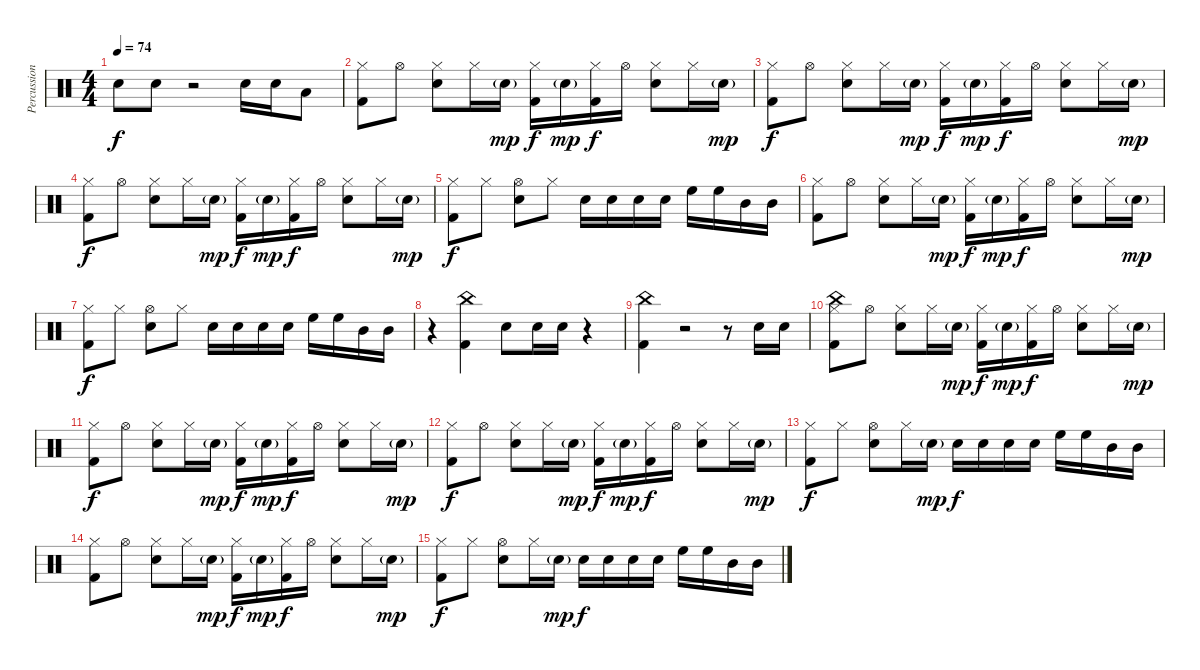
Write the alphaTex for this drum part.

\track ("Percussion" "Percussion") {instrument percussion}
\staff {score}
\articulation defaults
\ts (4 4)
\tempo 74
\clef neutral
\ks c "Snare (hit) 2".8{dy f} "Snare (hit) 2".8
r.2 "Snare (hit) 2".16 "Snare (hit) 2".16 "Low Tom (hit)".8 |
("Kick (hit) 2" "Hi-Hat (closed)").8 "Hi-Hat (open)".8 ("Hi-Hat (closed)" "Snare (hit) 2").8 "Hi-Hat (closed)".16 "Snare (hit) 2"{g}.16{dy mp} ("Kick (hit) 2" "Hi-Hat (closed)").16{dy f} "Snare (hit) 2"{g}.16{dy mp} ("Kick (hit) 2" "Hi-Hat (closed)").16{dy f} "Hi-Hat (open)".16 ("Hi-Hat (closed)" "Snare (hit) 2").8 "Hi-Hat (closed)".16 "Snare (hit) 2"{g}.16{dy mp} |
("Kick (hit) 2" "Hi-Hat (closed)").8{dy f} "Hi-Hat (open)".8 ("Hi-Hat (closed)" "Snare (hit) 2").8 "Hi-Hat (closed)".16 "Snare (hit) 2"{g}.16{dy mp} ("Kick (hit) 2" "Hi-Hat (closed)").16{dy f} "Snare (hit) 2"{g}.16{dy mp} ("Kick (hit) 2" "Hi-Hat (closed)").16{dy f} "Hi-Hat (open)".16 ("Hi-Hat (closed)" "Snare (hit) 2").8 "Hi-Hat (closed)".16 "Snare (hit) 2"{g}.16{dy mp} |
("Kick (hit) 2" "Hi-Hat (closed)").8{dy f} "Hi-Hat (open)".8 ("Hi-Hat (closed)" "Snare (hit) 2").8 "Hi-Hat (closed)".16 "Snare (hit) 2"{g}.16{dy mp} ("Kick (hit) 2" "Hi-Hat (closed)").16{dy f} "Snare (hit) 2"{g}.16{dy mp} ("Kick (hit) 2" "Hi-Hat (closed)").16{dy f} "Hi-Hat (open)".16 ("Hi-Hat (closed)" "Snare (hit) 2").8 "Hi-Hat (closed)".16 "Snare (hit) 2"{g}.16{dy mp} |
("Kick (hit) 2" "Hi-Hat (closed)").8{dy f} "Hi-Hat (closed)".8 ("Hi-Hat (open)" "Snare (hit) 2").8 "Hi-Hat (closed)".8 "Snare (hit) 2".16 "Snare (hit) 2".16 "Snare (hit) 2".16 "Snare (hit) 2".16 "High Floor Tom (hit)".16 "High Floor Tom (hit)".16 "Mid Tom (hit)".16 "Mid Tom (hit)".16 |
("Kick (hit) 2" "Hi-Hat (closed)").8 "Hi-Hat (open)".8 ("Hi-Hat (closed)" "Snare (hit) 2").8 "Hi-Hat (closed)".16 "Snare (hit) 2"{g}.16{dy mp} ("Kick (hit) 2" "Hi-Hat (closed)").16{dy f} "Snare (hit) 2"{g}.16{dy mp} ("Kick (hit) 2" "Hi-Hat (closed)").16{dy f} "Hi-Hat (open)".16 ("Hi-Hat (closed)" "Snare (hit) 2").8 "Hi-Hat (closed)".16 "Snare (hit) 2"{g}.16{dy mp} |
("Kick (hit) 2" "Hi-Hat (closed)").8{dy f} "Hi-Hat (closed)".8 ("Hi-Hat (open)" "Snare (hit) 2").8 "Hi-Hat (closed)".8 "Snare (hit) 2".16 "Snare (hit) 2".16 "Snare (hit) 2".16 "Snare (hit) 2".16 "High Floor Tom (hit)".16 "High Floor Tom (hit)".16 "Mid Tom (hit)".16 "Mid Tom (hit)".16 |
r.4 ("China (hit)" "Kick (hit) 2").4 "Snare (hit) 2".8 "Snare (hit) 2".16 "Snare (hit) 2".16 r.4 |
("China (hit)" "Kick (hit) 2").4 r.2 r.8 "Snare (hit) 2".16 "Snare (hit) 2".16 |
("China (hit)" "Hi-Hat (closed)" "Kick (hit) 2").8 "Hi-Hat (open)".8 ("Hi-Hat (closed)" "Snare (hit) 2").8 "Hi-Hat (closed)".16 "Snare (hit) 2"{g}.16{dy mp} ("Kick (hit) 2" "Hi-Hat (closed)").16{dy f} "Snare (hit) 2"{g}.16{dy mp} ("Kick (hit) 2" "Hi-Hat (closed)").16{dy f} "Hi-Hat (open)".16 ("Hi-Hat (closed)" "Snare (hit) 2").8 "Hi-Hat (closed)".16 "Snare (hit) 2"{g}.16{dy mp} |
("Hi-Hat (closed)" "Kick (hit) 2").8{dy f} "Hi-Hat (open)".8 ("Hi-Hat (closed)" "Snare (hit) 2").8 "Hi-Hat (closed)".16 "Snare (hit) 2"{g}.16{dy mp} ("Kick (hit) 2" "Hi-Hat (closed)").16{dy f} "Snare (hit) 2"{g}.16{dy mp} ("Kick (hit) 2" "Hi-Hat (closed)").16{dy f} "Hi-Hat (open)".16 ("Hi-Hat (closed)" "Snare (hit) 2").8 "Hi-Hat (closed)".16 "Snare (hit) 2"{g}.16{dy mp} |
("Hi-Hat (closed)" "Kick (hit) 2").8{dy f} "Hi-Hat (open)".8 ("Hi-Hat (closed)" "Snare (hit) 2").8 "Hi-Hat (closed)".16 "Snare (hit) 2"{g}.16{dy mp} ("Kick (hit) 2" "Hi-Hat (closed)").16{dy f} "Snare (hit) 2"{g}.16{dy mp} ("Kick (hit) 2" "Hi-Hat (closed)").16{dy f} "Hi-Hat (open)".16 ("Hi-Hat (closed)" "Snare (hit) 2").8 "Hi-Hat (closed)".16 "Snare (hit) 2"{g}.16{dy mp} |
("Hi-Hat (closed)" "Kick (hit) 2").8{dy f} "Hi-Hat (closed)".8 ("Hi-Hat (open)" "Snare (hit) 2").8 "Hi-Hat (closed)".16 "Snare (hit) 2"{g}.16{dy mp} "Snare (hit) 2".16{dy f} "Snare (hit) 2".16 "Snare (hit) 2".16 "Snare (hit) 2".16 "High Floor Tom (hit)".16 "High Floor Tom (hit)".16 "Mid Tom (hit)".16 "Mid Tom (hit)".16 |
("Hi-Hat (closed)" "Kick (hit) 2").8 "Hi-Hat (open)".8 ("Hi-Hat (closed)" "Snare (hit) 2").8 "Hi-Hat (closed)".16 "Snare (hit) 2"{g}.16{dy mp} ("Kick (hit) 2" "Hi-Hat (closed)").16{dy f} "Snare (hit) 2"{g}.16{dy mp} ("Kick (hit) 2" "Hi-Hat (closed)").16{dy f} "Hi-Hat (open)".16 ("Hi-Hat (closed)" "Snare (hit) 2").8 "Hi-Hat (closed)".16 "Snare (hit) 2"{g}.16{dy mp} |
("Hi-Hat (closed)" "Kick (hit) 2").8{dy f} "Hi-Hat (closed)".8 ("Hi-Hat (open)" "Snare (hit) 2").8 "Hi-Hat (closed)".16 "Snare (hit) 2"{g}.16{dy mp} "Snare (hit) 2".16{dy f} "Snare (hit) 2".16 "Snare (hit) 2".16 "Snare (hit) 2".16 "High Floor Tom (hit)".16 "High Floor Tom (hit)".16 "Mid Tom (hit)".16 "Mid Tom (hit)".16
